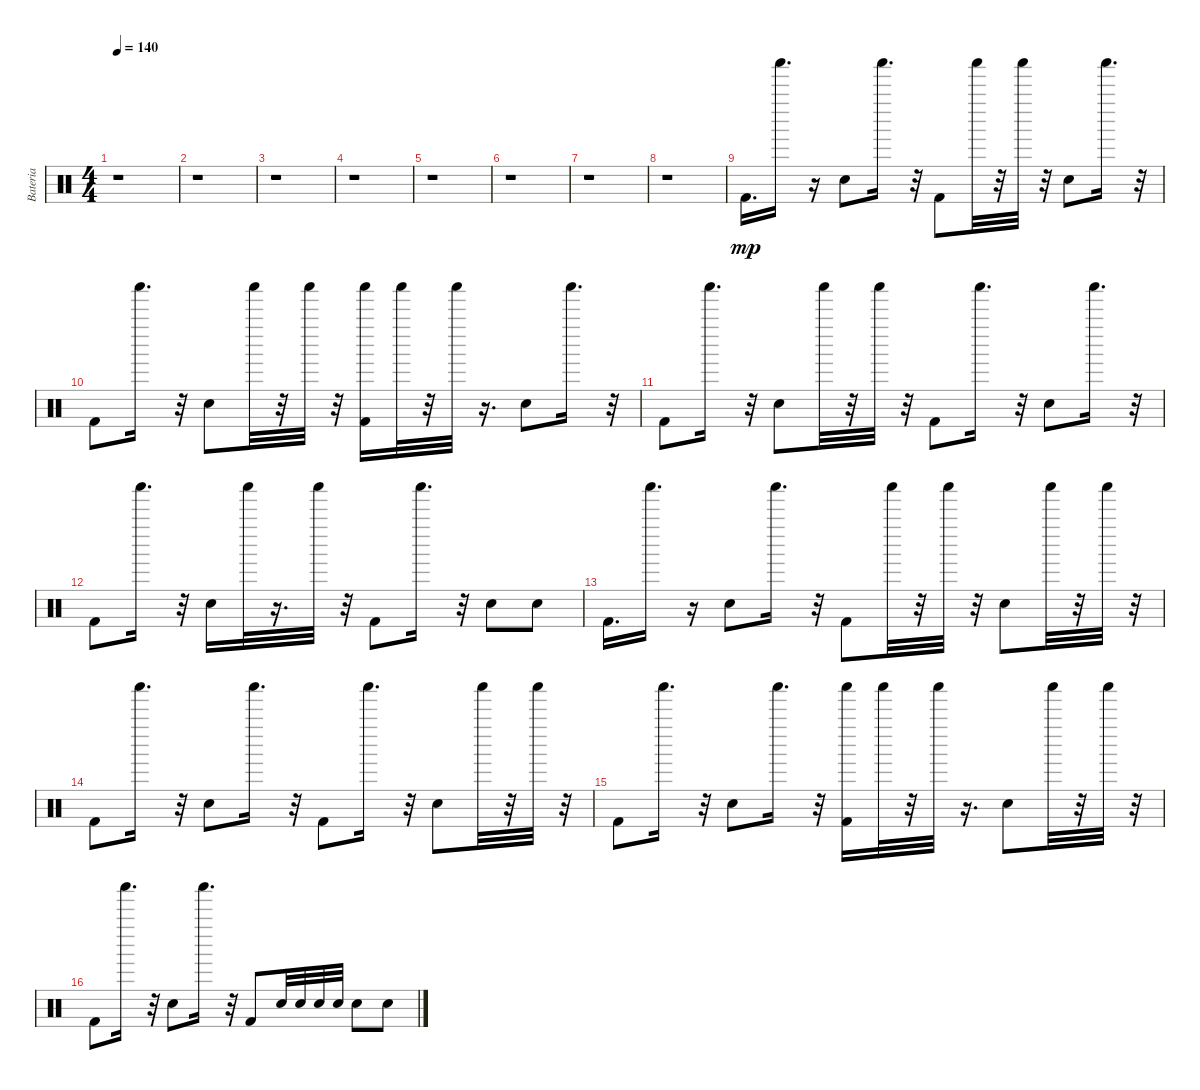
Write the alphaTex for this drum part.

\track ("Bateria" "Bateria") {instrument percussion}
\staff {score}
\articulation defaults
\ts (4 4)
\tempo 140
\clef neutral
\ks c
r.1{dy mp} |
r.1 |
r.1 |
r.1 |
r.1 |
r.1 |
r.1 |
r.1 |
"Kick (hit) 2".16{d} "Shaker (hit)".16{d} r.16 "Electric Snare (hit)".8 "Shaker (hit)".16{d} r.32 "Kick (hit) 2".8 "Shaker (hit)".32 r.32 "Shaker (hit)".32 r.32 "Electric Snare (hit)".8 "Shaker (hit)".16{d} r.32 |
"Kick (hit) 2".8 "Shaker (hit)".16{d} r.32 "Electric Snare (hit)".8 "Shaker (hit)".32 r.32 "Shaker (hit)".32 r.32 ("Kick (hit) 2" "Shaker (hit)").16 "Shaker (hit)".32 r.32 "Shaker (hit)".32 r.16{d} "Electric Snare (hit)".8 "Shaker (hit)".16{d} r.32 |
"Kick (hit) 2".8 "Shaker (hit)".16{d} r.32 "Electric Snare (hit)".8 "Shaker (hit)".32 r.32 "Shaker (hit)".32 r.32 "Kick (hit) 2".8 "Shaker (hit)".16{d} r.32 "Electric Snare (hit)".8 "Shaker (hit)".16{d} r.32 |
"Kick (hit) 2".8 "Shaker (hit)".16{d} r.32 "Electric Snare (hit)".16 "Shaker (hit)".32 r.16{d} "Shaker (hit)".32 r.32 "Kick (hit) 2".8 "Shaker (hit)".16{d} r.32 "Electric Snare (hit)".8 "Electric Snare (hit)".8 |
"Kick (hit) 2".16{d} "Shaker (hit)".16{d} r.16 "Electric Snare (hit)".8 "Shaker (hit)".16{d} r.32 "Kick (hit) 2".8 "Shaker (hit)".32 r.32 "Shaker (hit)".32 r.32 "Electric Snare (hit)".8 "Shaker (hit)".32 r.32 "Shaker (hit)".32 r.32 |
"Kick (hit) 2".8 "Shaker (hit)".16{d} r.32 "Electric Snare (hit)".8 "Shaker (hit)".16{d} r.32 "Kick (hit) 2".8 "Shaker (hit)".16{d} r.32 "Electric Snare (hit)".8 "Shaker (hit)".32 r.32 "Shaker (hit)".32 r.32 |
"Kick (hit) 2".8 "Shaker (hit)".16{d} r.32 "Electric Snare (hit)".8 "Shaker (hit)".16{d} r.32 ("Kick (hit) 2" "Shaker (hit)").16 "Shaker (hit)".32 r.32 "Shaker (hit)".32 r.16{d} "Electric Snare (hit)".8 "Shaker (hit)".32 r.32 "Shaker (hit)".32 r.32 |
"Kick (hit) 2".8 "Shaker (hit)".16{d} r.32 "Electric Snare (hit)".8 "Shaker (hit)".16{d} r.32 "Kick (hit) 2".8 "Electric Snare (hit)".32 "Electric Snare (hit)".32 "Electric Snare (hit)".32 "Electric Snare (hit)".32 "Electric Snare (hit)".8 "Electric Snare (hit)".8
